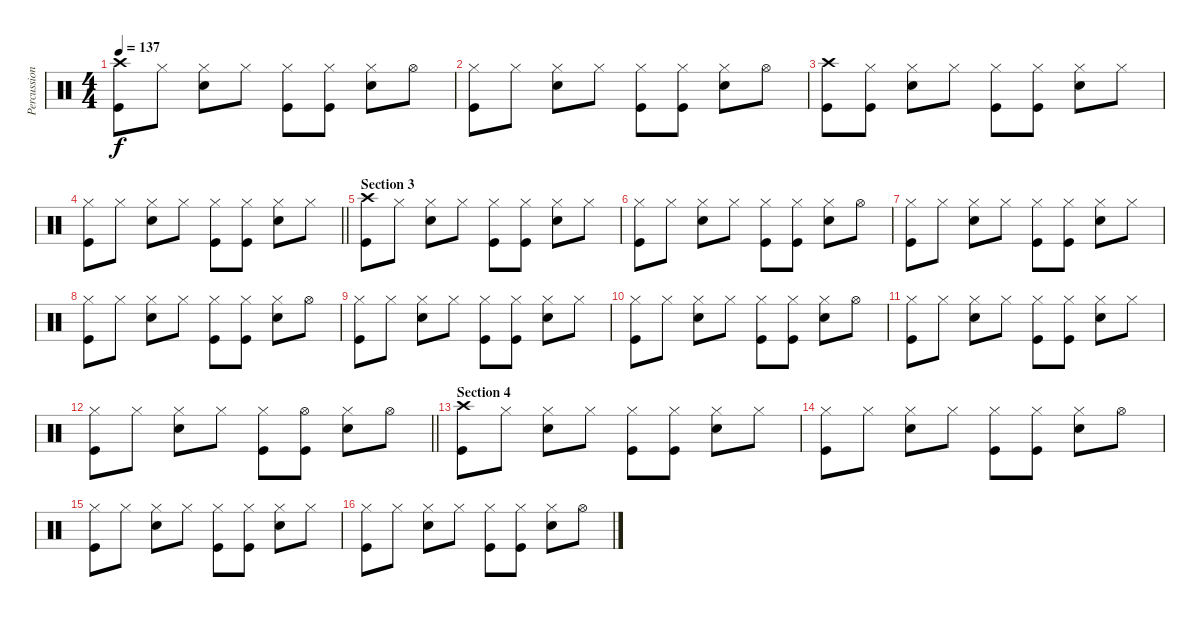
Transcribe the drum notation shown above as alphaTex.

\track ("Percussion" "Percussion") {instrument percussion}
\staff {score}
\articulation defaults
\ts (4 4)
\tempo 137
\clef neutral
\ks c
("Crash high (hit)" "Kick (hit)").8{dy f} "Hi-Hat (closed)".8 ("Hi-Hat (closed)" "Snare (hit) 2").8 "Hi-Hat (closed)".8 ("Hi-Hat (closed)" "Kick (hit)").8 ("Hi-Hat (closed)" "Kick (hit)").8 ("Hi-Hat (closed)" "Snare (hit) 2").8 "Hi-Hat (open)".8 |
("Hi-Hat (closed)" "Kick (hit)").8 "Hi-Hat (closed)".8 ("Hi-Hat (closed)" "Snare (hit) 2").8 "Hi-Hat (closed)".8 ("Hi-Hat (closed)" "Kick (hit)").8 ("Hi-Hat (closed)" "Kick (hit)").8 ("Hi-Hat (closed)" "Snare (hit) 2").8 "Hi-Hat (open)".8 |
("Crash high (hit)" "Kick (hit)").8 ("Hi-Hat (closed)" "Kick (hit)").8 ("Hi-Hat (closed)" "Snare (hit) 2").8 "Hi-Hat (closed)".8 ("Hi-Hat (closed)" "Kick (hit)").8 ("Hi-Hat (closed)" "Kick (hit)").8 ("Hi-Hat (closed)" "Snare (hit) 2").8 "Hi-Hat (closed)".8 |
\barLineRight lightlight
("Hi-Hat (closed)" "Kick (hit)").8 "Hi-Hat (closed)".8 ("Hi-Hat (closed)" "Snare (hit) 2").8 "Hi-Hat (closed)".8 ("Hi-Hat (closed)" "Kick (hit)").8 ("Hi-Hat (closed)" "Kick (hit)").8 ("Hi-Hat (closed)" "Snare (hit) 2").8 "Hi-Hat (closed)".8 |
\section ("" "Section 3")
("Crash high (hit)" "Kick (hit)").8 "Hi-Hat (closed)".8 ("Hi-Hat (closed)" "Snare (hit) 2").8 "Hi-Hat (closed)".8 ("Hi-Hat (closed)" "Kick (hit)").8 ("Hi-Hat (closed)" "Kick (hit)").8 ("Hi-Hat (closed)" "Snare (hit) 2").8 "Hi-Hat (closed)".8 |
("Hi-Hat (closed)" "Kick (hit)").8 "Hi-Hat (closed)".8 ("Hi-Hat (closed)" "Snare (hit) 2").8 "Hi-Hat (closed)".8 ("Hi-Hat (closed)" "Kick (hit)").8 ("Hi-Hat (closed)" "Kick (hit)").8 ("Hi-Hat (closed)" "Snare (hit) 2").8 "Hi-Hat (open)".8 |
("Hi-Hat (closed)" "Kick (hit)").8 "Hi-Hat (closed)".8 ("Hi-Hat (closed)" "Snare (hit) 2").8 "Hi-Hat (closed)".8 ("Hi-Hat (closed)" "Kick (hit)").8 ("Hi-Hat (closed)" "Kick (hit)").8 ("Hi-Hat (closed)" "Snare (hit) 2").8 "Hi-Hat (closed)".8 |
("Hi-Hat (closed)" "Kick (hit)").8 "Hi-Hat (closed)".8 ("Hi-Hat (closed)" "Snare (hit) 2").8 "Hi-Hat (closed)".8 ("Hi-Hat (closed)" "Kick (hit)").8 ("Hi-Hat (closed)" "Kick (hit)").8 ("Hi-Hat (closed)" "Snare (hit) 2").8 "Hi-Hat (open)".8 |
("Hi-Hat (closed)" "Kick (hit)").8 "Hi-Hat (closed)".8 ("Hi-Hat (closed)" "Snare (hit) 2").8 "Hi-Hat (closed)".8 ("Hi-Hat (closed)" "Kick (hit)").8 ("Hi-Hat (closed)" "Kick (hit)").8 ("Hi-Hat (closed)" "Snare (hit) 2").8 "Hi-Hat (closed)".8 |
("Hi-Hat (closed)" "Kick (hit)").8 "Hi-Hat (closed)".8 ("Hi-Hat (closed)" "Snare (hit) 2").8 "Hi-Hat (closed)".8 ("Hi-Hat (closed)" "Kick (hit)").8 ("Hi-Hat (closed)" "Kick (hit)").8 ("Hi-Hat (closed)" "Snare (hit) 2").8 "Hi-Hat (open)".8 |
("Hi-Hat (closed)" "Kick (hit)").8 "Hi-Hat (closed)".8 ("Hi-Hat (closed)" "Snare (hit) 2").8 "Hi-Hat (closed)".8 ("Hi-Hat (closed)" "Kick (hit)").8 ("Hi-Hat (closed)" "Kick (hit)").8 ("Hi-Hat (closed)" "Snare (hit) 2").8 "Hi-Hat (closed)".8 |
\barLineRight lightlight
("Hi-Hat (closed)" "Kick (hit)").8 "Hi-Hat (closed)".8 ("Hi-Hat (closed)" "Snare (hit) 2").8 "Hi-Hat (closed)".8 ("Hi-Hat (closed)" "Kick (hit)").8 ("Hi-Hat (open)" "Kick (hit)").8 ("Hi-Hat (closed)" "Snare (hit) 2").8 "Hi-Hat (open)".8 |
\section ("" "Section 4")
("Crash high (hit)" "Kick (hit)").8 "Hi-Hat (closed)".8 ("Hi-Hat (closed)" "Snare (hit) 2").8 "Hi-Hat (closed)".8 ("Hi-Hat (closed)" "Kick (hit)").8 ("Hi-Hat (closed)" "Kick (hit)").8 ("Hi-Hat (closed)" "Snare (hit) 2").8 "Hi-Hat (closed)".8 |
("Hi-Hat (closed)" "Kick (hit)").8 "Hi-Hat (closed)".8 ("Hi-Hat (closed)" "Snare (hit) 2").8 "Hi-Hat (closed)".8 ("Hi-Hat (closed)" "Kick (hit)").8 ("Hi-Hat (closed)" "Kick (hit)").8 ("Hi-Hat (closed)" "Snare (hit) 2").8 "Hi-Hat (open)".8 |
("Hi-Hat (closed)" "Kick (hit)").8 "Hi-Hat (closed)".8 ("Hi-Hat (closed)" "Snare (hit) 2").8 "Hi-Hat (closed)".8 ("Hi-Hat (closed)" "Kick (hit)").8 ("Hi-Hat (closed)" "Kick (hit)").8 ("Hi-Hat (closed)" "Snare (hit) 2").8 "Hi-Hat (closed)".8 |
("Hi-Hat (closed)" "Kick (hit)").8 "Hi-Hat (closed)".8 ("Hi-Hat (closed)" "Snare (hit) 2").8 "Hi-Hat (closed)".8 ("Hi-Hat (closed)" "Kick (hit)").8 ("Hi-Hat (closed)" "Kick (hit)").8 ("Hi-Hat (closed)" "Snare (hit) 2").8 "Hi-Hat (open)".8
